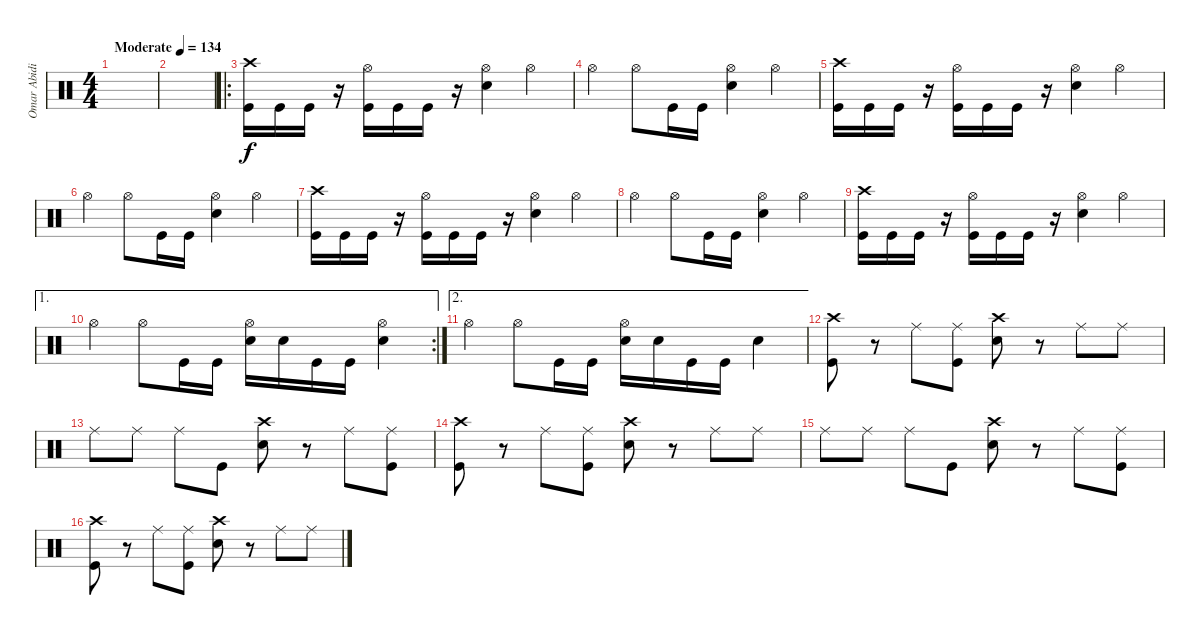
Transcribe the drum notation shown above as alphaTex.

\track ("Omar Abidi" "Omar Abidi") {instrument percussion}
\staff {score}
\articulation defaults
\ts (4 4)
\tempo (134 "Moderate")
\clef neutral
\ks c
|
|
\ro
("Crash high (hit)" "Kick (hit)").16 "Kick (hit)".16 "Kick (hit)".16 r.16 ("Hi-Hat (open)" "Kick (hit)").16 "Kick (hit)".16 "Kick (hit)".16 r.16 ("Hi-Hat (open)" "Snare (hit) 2").4 "Hi-Hat (open)".4 |
"Hi-Hat (open)".4 "Hi-Hat (open)".8 "Kick (hit)".16 "Kick (hit)".16 ("Hi-Hat (open)" "Snare (hit) 2").4 "Hi-Hat (open)".4 |
("Crash high (hit)" "Kick (hit)").16 "Kick (hit)".16 "Kick (hit)".16 r.16 ("Hi-Hat (open)" "Kick (hit)").16 "Kick (hit)".16 "Kick (hit)".16 r.16 ("Hi-Hat (open)" "Snare (hit) 2").4 "Hi-Hat (open)".4 |
"Hi-Hat (open)".4 "Hi-Hat (open)".8 "Kick (hit)".16 "Kick (hit)".16 ("Hi-Hat (open)" "Snare (hit) 2").4 "Hi-Hat (open)".4 |
("Crash high (hit)" "Kick (hit)").16 "Kick (hit)".16 "Kick (hit)".16 r.16 ("Hi-Hat (open)" "Kick (hit)").16 "Kick (hit)".16 "Kick (hit)".16 r.16 ("Hi-Hat (open)" "Snare (hit) 2").4 "Hi-Hat (open)".4 |
"Hi-Hat (open)".4 "Hi-Hat (open)".8 "Kick (hit)".16 "Kick (hit)".16 ("Hi-Hat (open)" "Snare (hit) 2").4 "Hi-Hat (open)".4 |
("Crash high (hit)" "Kick (hit)").16 "Kick (hit)".16 "Kick (hit)".16 r.16 ("Hi-Hat (open)" "Kick (hit)").16 "Kick (hit)".16 "Kick (hit)".16 r.16 ("Hi-Hat (open)" "Snare (hit) 2").4 "Hi-Hat (open)".4 |
\ae 1
\rc 2 "Hi-Hat (open)".4 "Hi-Hat (open)".8 "Kick (hit)".16 "Kick (hit)".16
("Hi-Hat (open)" "Snare (hit) 2").16 "Snare (hit) 2".16 "Kick (hit)".16 "Kick (hit)".16 ("Hi-Hat (open)" "Snare (hit) 2").4 |
\ae 2 "Hi-Hat (open)".4 "Hi-Hat (open)".8 "Kick (hit)".16 "Kick (hit)".16
("Hi-Hat (open)" "Snare (hit) 2").16 "Snare (hit) 2".16 "Kick (hit)".16 "Kick (hit)".16 "Snare (hit) 2".4 |
("Crash high (hit)" "Kick (hit)").8 r.8 "Ride (middle)".8 ("Ride (middle)" "Kick (hit)").8 ("Crash high (hit)" "Snare (hit) 2").8 r.8 "Ride (middle)".8 "Ride (middle)".8 |
"Ride (middle)".8 "Ride (middle)".8 "Ride (middle)".8 "Kick (hit)".8 ("Crash high (hit)" "Snare (hit) 2").8 r.8 "Ride (middle)".8 ("Ride (middle)" "Kick (hit)").8 |
("Crash high (hit)" "Kick (hit)").8 r.8 "Ride (middle)".8 ("Ride (middle)" "Kick (hit)").8 ("Crash high (hit)" "Snare (hit) 2").8 r.8 "Ride (middle)".8 "Ride (middle)".8 |
"Ride (middle)".8 "Ride (middle)".8 "Ride (middle)".8 "Kick (hit)".8 ("Crash high (hit)" "Snare (hit) 2").8 r.8 "Ride (middle)".8 ("Ride (middle)" "Kick (hit)").8 |
("Crash high (hit)" "Kick (hit)").8 r.8 "Ride (middle)".8 ("Ride (middle)" "Kick (hit)").8 ("Crash high (hit)" "Snare (hit) 2").8 r.8 "Ride (middle)".8 "Ride (middle)".8
